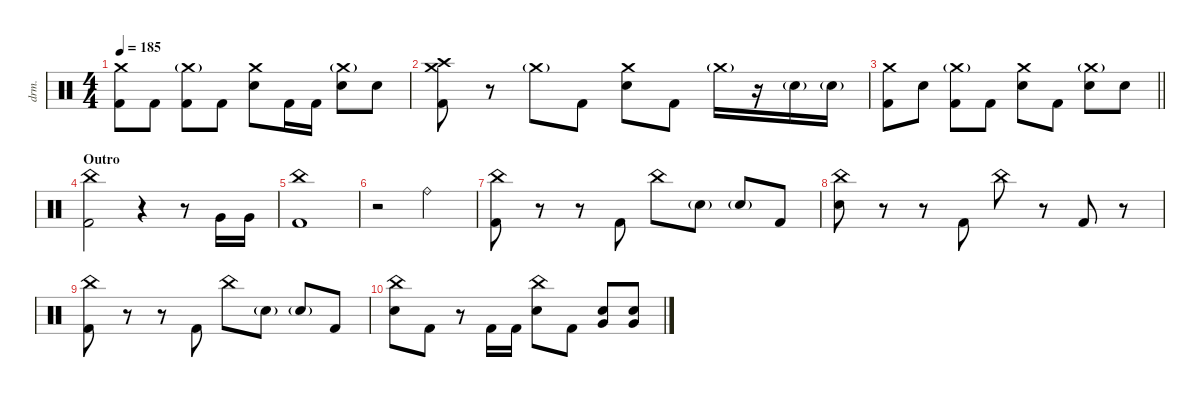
\defaultSystemsLayout 4
\hideDynamics
\bracketExtendMode nobrackets
\track ("Drums - Šimon" "drm.") {instrument percussion}
\staff {score}
\articulation defaults
\ts (4 4)
\tempo 185
\clef neutral
\ks c
("Crash medium (hit)" "Kick (hit) 2").8{dy ff beam Down} "Kick (hit) 2".8{beam Down} ("Crash medium (hit)"{g} "Kick (hit) 2").8{beam Down} "Kick (hit) 2".8{beam Down} ("Snare (hit) 2" "Crash medium (hit)").8{beam Down} "Kick (hit) 2".16{beam Down} "Kick (hit) 2".16{beam Down} ("Snare (hit) 2" "Crash medium (hit)"{g}).8{beam Down} "Snare (hit) 2".8{beam Down} |
("Kick (hit) 2" "Crash medium (hit)" "Crash high (hit)").8{beam Down} r.8{beam Down} "Crash medium (hit)"{g}.8{beam Down} "Kick (hit) 2".8{beam Down} ("Snare (hit) 2" "Crash medium (hit)").8{beam Down} "Kick (hit) 2".8{beam Down} "Crash medium (hit)"{g}.16{beam Down} r.16{beam Down} "Snare (hit) 2"{g}.16{beam Down} "Snare (hit) 2"{g}.16{beam Down} |
\barLineRight lightlight
("Crash medium (hit)" "Kick (hit) 2").8{beam Down} "Snare (hit) 2".8{beam Down} ("Kick (hit) 2" "Crash medium (hit)"{g}).8{beam Down} "Kick (hit) 2".8{beam Down} ("Snare (hit) 2" "Crash medium (hit)").8{beam Down} "Kick (hit) 2".8{beam Down} ("Crash medium (hit)"{g} "Snare (hit) 2").8{beam Down} "Snare (hit) 2".8{beam Down} |
\section ("" "Outro")
("China (hit)" "Kick (hit) 2").2{beam Down} r.4{beam Down} r.8{beam Down} "Very Low Tom (hit)".16{beam Up} "Very Low Tom (hit)".16{beam Up} |
("China (hit)" "Kick (hit) 2").1{beam Down} |
r.2{beam Down} "Ride (bell)".2{beam Down} |
("Kick (hit) 2" "China (hit)").8{beam Down} r.8{beam Down} r.8{beam Down} "Kick (hit) 2".8{beam Up} "China (hit)".8{beam Down} "Snare (hit) 2"{g}.8{beam Down} "Snare (hit) 2"{g}.8{beam Up} "Kick (hit) 2".8{beam Up} |
("China (hit)" "Snare (hit) 2").8{beam Down} r.8{beam Down} r.8{beam Down} "Kick (hit) 2".8{beam Up} "China (hit)".8{beam Down} r.8{beam Down} "Kick (hit) 2".8{beam Up} r.8{beam Down} |
("Kick (hit) 2" "China (hit)").8{beam Down} r.8{beam Down} r.8{beam Down} "Kick (hit) 2".8{beam Up} "China (hit)".8{beam Down} "Snare (hit) 2"{g}.8{beam Down} "Snare (hit) 2"{g}.8{beam Up} "Kick (hit) 2".8{beam Up} |
("China (hit)" "Snare (hit) 2").8{beam Down} "Kick (hit) 2".8{beam Down} r.8{beam Down} "Kick (hit) 2".16{beam Up} "Kick (hit) 2".16{beam Up} ("China (hit)" "Snare (hit) 2").8{beam Down} "Kick (hit) 2".8{beam Down} ("Snare (hit) 2" "Very Low Tom (hit)").8{beam Up} ("Snare (hit) 2" "Very Low Tom (hit)").8{beam Up}
